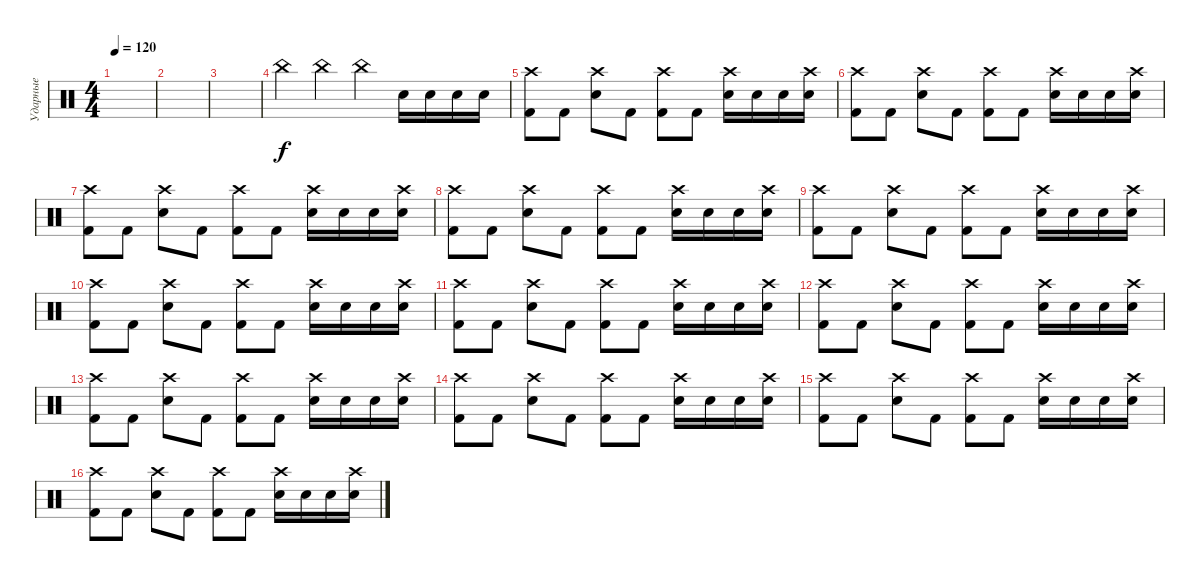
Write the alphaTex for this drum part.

\track ("Ударные" "Ударные") {instrument percussion}
\staff {score}
\articulation defaults
\ts (4 4)
\tempo 120
\clef neutral
\ks c
|
|
|
"China (hit)".4 "China (hit)".4 "China (hit)".4 "Electric Snare (hit)".16 "Electric Snare (hit)".16 "Electric Snare (hit)".16 "Electric Snare (hit)".16 |
("Kick (hit) 2" "Crash high (hit)").8 "Kick (hit) 2".8 ("Electric Snare (hit)" "Crash high (hit)").8 "Kick (hit) 2".8 ("Kick (hit) 2" "Crash high (hit)").8 "Kick (hit) 2".8 ("Electric Snare (hit)" "Crash high (hit)").16 "Electric Snare (hit)".16 "Electric Snare (hit)".16 ("Electric Snare (hit)" "Crash high (hit)").16 |
("Kick (hit) 2" "Crash high (hit)").8 "Kick (hit) 2".8 ("Electric Snare (hit)" "Crash high (hit)").8 "Kick (hit) 2".8 ("Kick (hit) 2" "Crash high (hit)").8 "Kick (hit) 2".8 ("Electric Snare (hit)" "Crash high (hit)").16 "Electric Snare (hit)".16 "Electric Snare (hit)".16 ("Electric Snare (hit)" "Crash high (hit)").16 |
("Kick (hit) 2" "Crash high (hit)").8 "Kick (hit) 2".8 ("Electric Snare (hit)" "Crash high (hit)").8 "Kick (hit) 2".8 ("Kick (hit) 2" "Crash high (hit)").8 "Kick (hit) 2".8 ("Electric Snare (hit)" "Crash high (hit)").16 "Electric Snare (hit)".16 "Electric Snare (hit)".16 ("Electric Snare (hit)" "Crash high (hit)").16 |
("Kick (hit) 2" "Crash high (hit)").8 "Kick (hit) 2".8 ("Electric Snare (hit)" "Crash high (hit)").8 "Kick (hit) 2".8 ("Kick (hit) 2" "Crash high (hit)").8 "Kick (hit) 2".8 ("Electric Snare (hit)" "Crash high (hit)").16 "Electric Snare (hit)".16 "Electric Snare (hit)".16 ("Electric Snare (hit)" "Crash high (hit)").16 |
("Kick (hit) 2" "Crash high (hit)").8 "Kick (hit) 2".8 ("Electric Snare (hit)" "Crash high (hit)").8 "Kick (hit) 2".8 ("Kick (hit) 2" "Crash high (hit)").8 "Kick (hit) 2".8 ("Electric Snare (hit)" "Crash high (hit)").16 "Electric Snare (hit)".16 "Electric Snare (hit)".16 ("Electric Snare (hit)" "Crash high (hit)").16 |
("Kick (hit) 2" "Crash high (hit)").8 "Kick (hit) 2".8 ("Electric Snare (hit)" "Crash high (hit)").8 "Kick (hit) 2".8 ("Kick (hit) 2" "Crash high (hit)").8 "Kick (hit) 2".8 ("Electric Snare (hit)" "Crash high (hit)").16 "Electric Snare (hit)".16 "Electric Snare (hit)".16 ("Electric Snare (hit)" "Crash high (hit)").16 |
("Kick (hit) 2" "Crash high (hit)").8 "Kick (hit) 2".8 ("Electric Snare (hit)" "Crash high (hit)").8 "Kick (hit) 2".8 ("Kick (hit) 2" "Crash high (hit)").8 "Kick (hit) 2".8 ("Electric Snare (hit)" "Crash high (hit)").16 "Electric Snare (hit)".16 "Electric Snare (hit)".16 ("Electric Snare (hit)" "Crash high (hit)").16 |
("Kick (hit) 2" "Crash high (hit)").8 "Kick (hit) 2".8 ("Electric Snare (hit)" "Crash high (hit)").8 "Kick (hit) 2".8 ("Kick (hit) 2" "Crash high (hit)").8 "Kick (hit) 2".8 ("Electric Snare (hit)" "Crash high (hit)").16 "Electric Snare (hit)".16 "Electric Snare (hit)".16 ("Electric Snare (hit)" "Crash high (hit)").16 |
("Kick (hit) 2" "Crash high (hit)").8 "Kick (hit) 2".8 ("Electric Snare (hit)" "Crash high (hit)").8 "Kick (hit) 2".8 ("Kick (hit) 2" "Crash high (hit)").8 "Kick (hit) 2".8 ("Electric Snare (hit)" "Crash high (hit)").16 "Electric Snare (hit)".16 "Electric Snare (hit)".16 ("Electric Snare (hit)" "Crash high (hit)").16 |
("Kick (hit) 2" "Crash high (hit)").8 "Kick (hit) 2".8 ("Electric Snare (hit)" "Crash high (hit)").8 "Kick (hit) 2".8 ("Kick (hit) 2" "Crash high (hit)").8 "Kick (hit) 2".8 ("Electric Snare (hit)" "Crash high (hit)").16 "Electric Snare (hit)".16 "Electric Snare (hit)".16 ("Electric Snare (hit)" "Crash high (hit)").16 |
("Kick (hit) 2" "Crash high (hit)").8 "Kick (hit) 2".8 ("Electric Snare (hit)" "Crash high (hit)").8 "Kick (hit) 2".8 ("Kick (hit) 2" "Crash high (hit)").8 "Kick (hit) 2".8 ("Electric Snare (hit)" "Crash high (hit)").16 "Electric Snare (hit)".16 "Electric Snare (hit)".16 ("Electric Snare (hit)" "Crash high (hit)").16 |
("Kick (hit) 2" "Crash high (hit)").8 "Kick (hit) 2".8 ("Electric Snare (hit)" "Crash high (hit)").8 "Kick (hit) 2".8 ("Kick (hit) 2" "Crash high (hit)").8 "Kick (hit) 2".8 ("Electric Snare (hit)" "Crash high (hit)").16 "Electric Snare (hit)".16 "Electric Snare (hit)".16 ("Electric Snare (hit)" "Crash high (hit)").16
